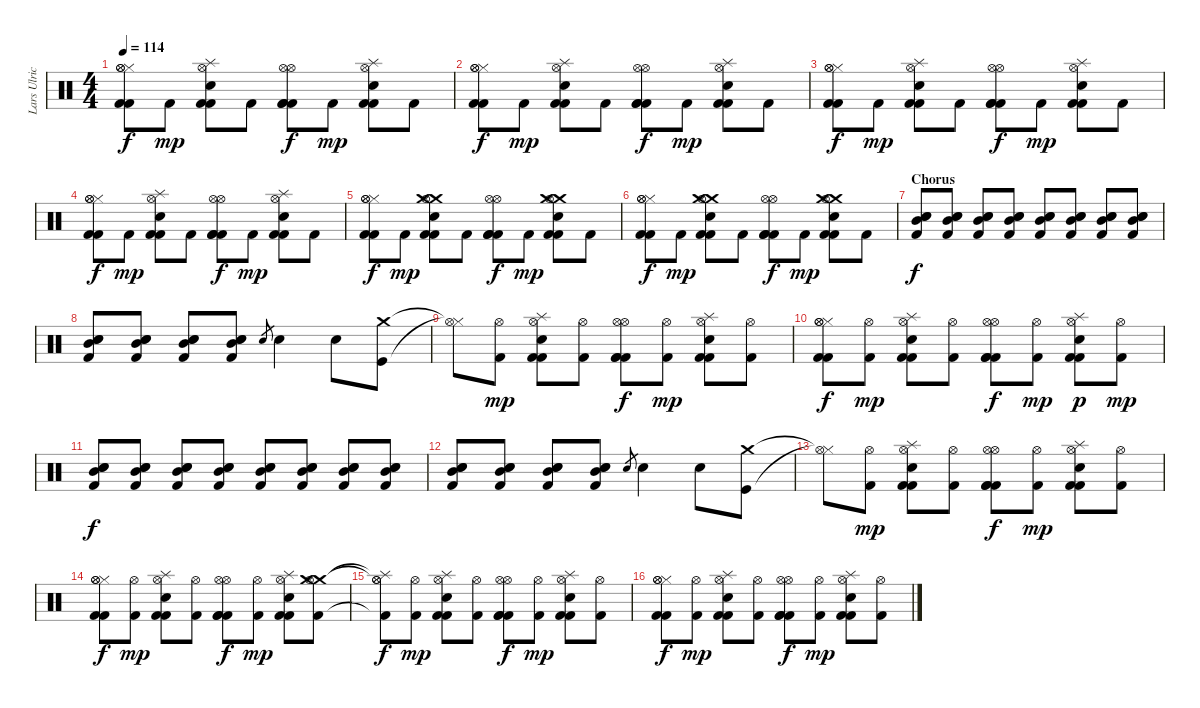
\track ("Lars Ulrich" "Lars Ulric") {instrument percussion}
\staff {score}
\articulation defaults
\ts (4 4)
\tempo 114
\clef neutral
\ks c
("Hi-Hat (closed)" "Hi-Hat (open)" "Hi-Hat (open)" "Kick (hit) 2" "Kick (hit) 2").8{dy f} "Kick (hit) 2".8{dy mp} ("Snare (hit) 2" "Splash (hit)" "Hi-Hat (open)" "Kick (hit) 2" "Kick (hit) 2").8 "Kick (hit) 2".8 ("Kick (hit) 2" "Hi-Hat (open)" "Hi-Hat (open)" "Kick (hit) 2" "Kick (hit) 2").8{dy f} "Kick (hit) 2".8{dy mp} ("Snare (hit) 2" "Splash (hit)" "Hi-Hat (open)" "Kick (hit) 2" "Kick (hit) 2").8 "Kick (hit) 2".8 |
("Hi-Hat (closed)" "Hi-Hat (open)" "Hi-Hat (open)" "Kick (hit) 2" "Kick (hit) 2").8{dy f} "Kick (hit) 2".8{dy mp} ("Snare (hit) 2" "Splash (hit)" "Hi-Hat (open)" "Kick (hit) 2" "Kick (hit) 2").8 "Kick (hit) 2".8 ("Kick (hit) 2" "Hi-Hat (open)" "Hi-Hat (open)" "Kick (hit) 2" "Kick (hit) 2").8{dy f} "Kick (hit) 2".8{dy mp} ("Snare (hit) 2" "Splash (hit)" "Hi-Hat (open)" "Kick (hit) 2" "Kick (hit) 2").8 "Kick (hit) 2".8 |
("Hi-Hat (closed)" "Hi-Hat (open)" "Hi-Hat (open)" "Kick (hit) 2" "Kick (hit) 2").8{dy f} "Kick (hit) 2".8{dy mp} ("Snare (hit) 2" "Splash (hit)" "Hi-Hat (open)" "Kick (hit) 2" "Kick (hit) 2").8 "Kick (hit) 2".8 ("Kick (hit) 2" "Hi-Hat (open)" "Hi-Hat (open)" "Kick (hit) 2" "Kick (hit) 2").8{dy f} "Kick (hit) 2".8{dy mp} ("Snare (hit) 2" "Splash (hit)" "Hi-Hat (open)" "Kick (hit) 2" "Kick (hit) 2").8 "Kick (hit) 2".8 |
("Hi-Hat (closed)" "Hi-Hat (open)" "Hi-Hat (open)" "Kick (hit) 2" "Kick (hit) 2").8{dy f} "Kick (hit) 2".8{dy mp} ("Snare (hit) 2" "Splash (hit)" "Hi-Hat (open)" "Kick (hit) 2" "Kick (hit) 2").8 "Kick (hit) 2".8 ("Kick (hit) 2" "Hi-Hat (open)" "Hi-Hat (open)" "Kick (hit) 2" "Kick (hit) 2").8{dy f} "Kick (hit) 2".8{dy mp} ("Snare (hit) 2" "Splash (hit)" "Hi-Hat (open)" "Kick (hit) 2" "Kick (hit) 2").8 "Kick (hit) 2".8 |
("Hi-Hat (closed)" "Hi-Hat (open)" "Hi-Hat (open)" "Kick (hit) 2" "Kick (hit) 2").8{dy f} "Kick (hit) 2".8{dy mp} ("Snare (hit) 2" "Crash medium (hit)" "Hi-Hat (open)" "Kick (hit) 2" "Kick (hit) 2" "Crash medium (hit)").8 "Kick (hit) 2".8 ("Kick (hit) 2" "Hi-Hat (open)" "Hi-Hat (open)" "Kick (hit) 2" "Kick (hit) 2").8{dy f} "Kick (hit) 2".8{dy mp} ("Snare (hit) 2" "Crash medium (hit)" "Hi-Hat (open)" "Kick (hit) 2" "Kick (hit) 2" "Crash medium (hit)").8 "Kick (hit) 2".8 |
("Hi-Hat (closed)" "Hi-Hat (open)" "Hi-Hat (open)" "Kick (hit) 2" "Kick (hit) 2").8{dy f} "Kick (hit) 2".8{dy mp} ("Snare (hit) 2" "Crash medium (hit)" "Hi-Hat (open)" "Kick (hit) 2" "Kick (hit) 2" "Crash medium (hit)").8 "Kick (hit) 2".8 ("Kick (hit) 2" "Hi-Hat (open)" "Hi-Hat (open)" "Kick (hit) 2" "Kick (hit) 2").8{dy f} "Kick (hit) 2".8{dy mp} ("Snare (hit) 2" "Crash medium (hit)" "Hi-Hat (open)" "Kick (hit) 2" "Kick (hit) 2" "Crash medium (hit)").8 "Kick (hit) 2".8 |
\section ("" "Chorus")
("Electric Snare (hit)" "Mid Tom (hit)" "Electric Snare (hit)" "Kick (hit) 2").8{dy f} ("Electric Snare (hit)" "Mid Tom (hit)" "Electric Snare (hit)" "Kick (hit) 2").8 ("Electric Snare (hit)" "Mid Tom (hit)" "Electric Snare (hit)" "Kick (hit) 2").8 ("Electric Snare (hit)" "Mid Tom (hit)" "Electric Snare (hit)" "Kick (hit) 2").8 ("Electric Snare (hit)" "Mid Tom (hit)" "Electric Snare (hit)" "Kick (hit) 2").8 ("Electric Snare (hit)" "Mid Tom (hit)" "Electric Snare (hit)" "Kick (hit) 2").8 ("Electric Snare (hit)" "Mid Tom (hit)" "Electric Snare (hit)" "Kick (hit) 2").8 ("Electric Snare (hit)" "Mid Tom (hit)" "Electric Snare (hit)" "Kick (hit) 2").8 |
("Electric Snare (hit)" "Mid Tom (hit)" "Electric Snare (hit)" "Kick (hit) 2").8 ("Electric Snare (hit)" "Mid Tom (hit)" "Electric Snare (hit)" "Kick (hit) 2").8 ("Electric Snare (hit)" "Mid Tom (hit)" "Electric Snare (hit)" "Kick (hit) 2").8 ("Electric Snare (hit)" "Mid Tom (hit)" "Electric Snare (hit)" "Kick (hit) 2").8 "Electric Snare (hit)".8{gr} "Electric Snare (hit)".4 "Electric Snare (hit)".8 ("Kick (hit)" "Crash medium (hit)").8 |
("Hi-Hat (closed)"{t} "Hi-Hat (open)"{t}).8 ("Hi-Hat (open)" "Kick (hit) 2").8{dy mp} ("Snare (hit) 2" "Splash (hit)" "Hi-Hat (open)" "Kick (hit) 2" "Kick (hit) 2").8 ("Hi-Hat (open)" "Kick (hit) 2").8 ("Kick (hit) 2" "Hi-Hat (open)" "Hi-Hat (open)" "Kick (hit) 2" "Kick (hit) 2").8{dy f} ("Hi-Hat (open)" "Kick (hit) 2").8{dy mp} ("Snare (hit) 2" "Splash (hit)" "Hi-Hat (open)" "Kick (hit) 2" "Kick (hit) 2").8 ("Hi-Hat (open)" "Kick (hit) 2").8 |
("Hi-Hat (closed)" "Hi-Hat (open)" "Hi-Hat (open)" "Kick (hit) 2" "Kick (hit) 2").8{dy f} ("Hi-Hat (open)" "Kick (hit) 2").8{dy mp} ("Snare (hit) 2" "Splash (hit)" "Hi-Hat (open)" "Kick (hit) 2" "Kick (hit) 2").8 ("Hi-Hat (open)" "Kick (hit) 2").8 ("Kick (hit) 2" "Hi-Hat (open)" "Hi-Hat (open)" "Kick (hit) 2" "Kick (hit) 2").8{dy f} ("Hi-Hat (open)" "Kick (hit) 2").8{dy mp} ("Snare (hit) 2" "Splash (hit)" "Hi-Hat (open)" "Kick (hit) 2" "Kick (hit) 2").8{dy p} ("Hi-Hat (open)" "Kick (hit) 2").8{dy mp} |
("Electric Snare (hit)" "Mid Tom (hit)" "Electric Snare (hit)" "Kick (hit) 2").8{dy f} ("Electric Snare (hit)" "Mid Tom (hit)" "Electric Snare (hit)" "Kick (hit) 2").8 ("Electric Snare (hit)" "Mid Tom (hit)" "Electric Snare (hit)" "Kick (hit) 2").8 ("Electric Snare (hit)" "Mid Tom (hit)" "Electric Snare (hit)" "Kick (hit) 2").8 ("Electric Snare (hit)" "Mid Tom (hit)" "Electric Snare (hit)" "Kick (hit) 2").8 ("Electric Snare (hit)" "Mid Tom (hit)" "Electric Snare (hit)" "Kick (hit) 2").8 ("Electric Snare (hit)" "Mid Tom (hit)" "Electric Snare (hit)" "Kick (hit) 2").8 ("Electric Snare (hit)" "Mid Tom (hit)" "Electric Snare (hit)" "Kick (hit) 2").8 |
("Electric Snare (hit)" "Mid Tom (hit)" "Electric Snare (hit)" "Kick (hit) 2").8 ("Electric Snare (hit)" "Mid Tom (hit)" "Electric Snare (hit)" "Kick (hit) 2").8 ("Electric Snare (hit)" "Mid Tom (hit)" "Electric Snare (hit)" "Kick (hit) 2").8 ("Electric Snare (hit)" "Mid Tom (hit)" "Electric Snare (hit)" "Kick (hit) 2").8 "Electric Snare (hit)".8{gr} "Electric Snare (hit)".4 "Electric Snare (hit)".8 ("Kick (hit)" "Crash medium (hit)").8 |
("Hi-Hat (closed)"{t} "Hi-Hat (open)"{t}).8 ("Hi-Hat (open)" "Kick (hit) 2").8{dy mp} ("Snare (hit) 2" "Splash (hit)" "Hi-Hat (open)" "Kick (hit) 2" "Kick (hit) 2").8 ("Hi-Hat (open)" "Kick (hit) 2").8 ("Kick (hit) 2" "Hi-Hat (open)" "Hi-Hat (open)" "Kick (hit) 2" "Kick (hit) 2").8{dy f} ("Hi-Hat (open)" "Kick (hit) 2").8{dy mp} ("Snare (hit) 2" "Splash (hit)" "Hi-Hat (open)" "Kick (hit) 2" "Kick (hit) 2").8 ("Hi-Hat (open)" "Kick (hit) 2").8 |
("Hi-Hat (closed)" "Hi-Hat (open)" "Hi-Hat (open)" "Kick (hit) 2" "Kick (hit) 2").8{dy f} ("Hi-Hat (open)" "Kick (hit) 2").8{dy mp} ("Snare (hit) 2" "Splash (hit)" "Hi-Hat (open)" "Kick (hit) 2" "Kick (hit) 2").8 ("Hi-Hat (open)" "Kick (hit) 2").8 ("Kick (hit) 2" "Hi-Hat (open)" "Hi-Hat (open)" "Kick (hit) 2" "Kick (hit) 2").8{dy f} ("Hi-Hat (open)" "Kick (hit) 2").8{dy mp} ("Snare (hit) 2" "Splash (hit)" "Hi-Hat (open)" "Kick (hit) 2" "Kick (hit) 2").8 ("Crash medium (hit)" "Crash medium (hit)" "Hi-Hat (open)" "Kick (hit) 2").8 |
("Splash (hit)"{t} "Hi-Hat (open)"{t} "Hi-Hat (open)" "Kick (hit) 2"{t}).8{dy f} ("Hi-Hat (open)" "Kick (hit) 2").8{dy mp} ("Snare (hit) 2" "Splash (hit)" "Hi-Hat (open)" "Kick (hit) 2" "Kick (hit) 2").8 ("Hi-Hat (open)" "Kick (hit) 2").8 ("Kick (hit) 2" "Hi-Hat (open)" "Hi-Hat (open)" "Kick (hit) 2" "Kick (hit) 2").8{dy f} ("Hi-Hat (open)" "Kick (hit) 2").8{dy mp} ("Snare (hit) 2" "Splash (hit)" "Hi-Hat (open)" "Kick (hit) 2" "Kick (hit) 2").8 ("Hi-Hat (open)" "Kick (hit) 2").8 |
("Hi-Hat (closed)" "Hi-Hat (open)" "Hi-Hat (open)" "Kick (hit) 2" "Kick (hit) 2").8{dy f} ("Hi-Hat (open)" "Kick (hit) 2").8{dy mp} ("Snare (hit) 2" "Splash (hit)" "Hi-Hat (open)" "Kick (hit) 2" "Kick (hit) 2").8 ("Hi-Hat (open)" "Kick (hit) 2").8 ("Kick (hit) 2" "Hi-Hat (open)" "Hi-Hat (open)" "Kick (hit) 2" "Kick (hit) 2").8{dy f} ("Hi-Hat (open)" "Kick (hit) 2").8{dy mp} ("Snare (hit) 2" "Splash (hit)" "Hi-Hat (open)" "Kick (hit) 2" "Kick (hit) 2").8 ("Hi-Hat (open)" "Kick (hit) 2").8
